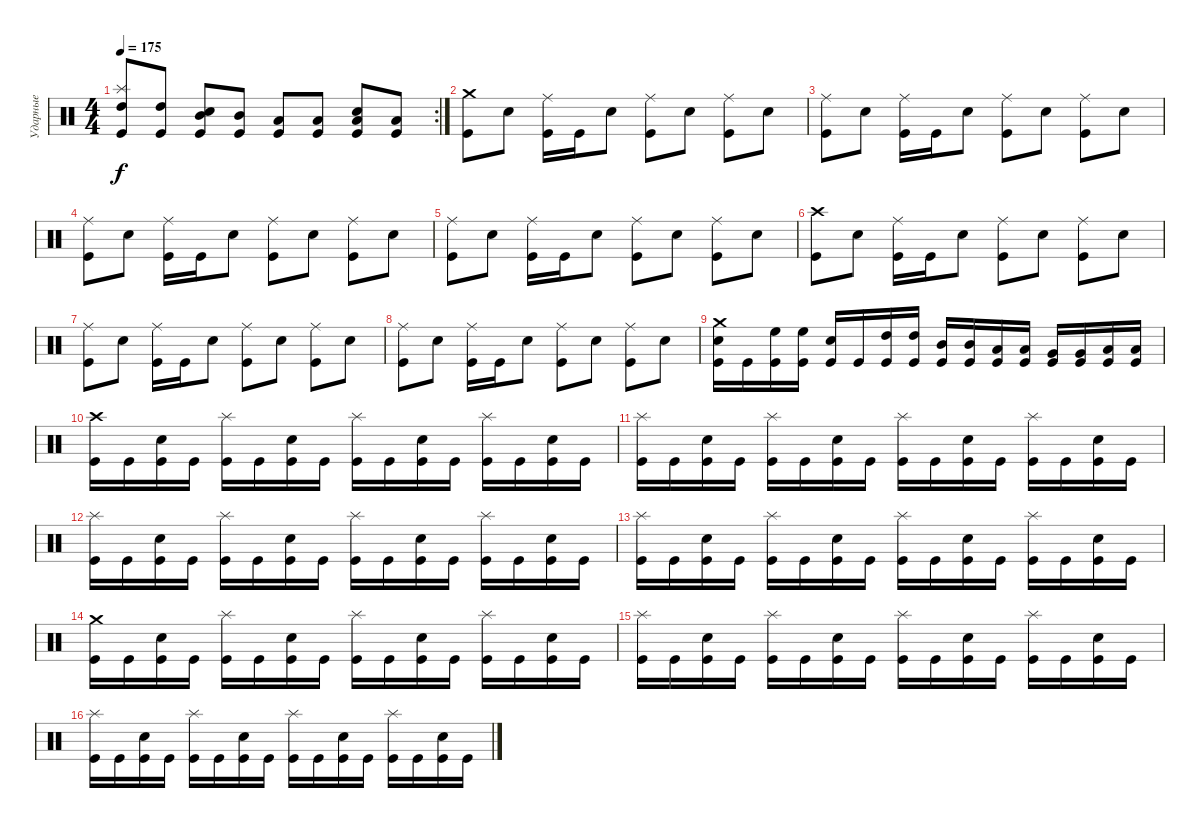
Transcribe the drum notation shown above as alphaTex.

\track ("Ударные" "Ударные") {instrument percussion}
\staff {score}
\articulation defaults
\rc 2
\ts (4 4)
\tempo 175
\clef neutral
\ks c
("High Tom (hit)" "Splash (hit)" "Kick (hit)").8{dy f} ("High Tom (hit)" "Kick (hit)").8 ("Snare (hit) 2" "Mid Tom (hit)" "Kick (hit)").8 ("Mid Tom (hit)" "Kick (hit)").8 ("Low Tom (hit)" "Kick (hit)").8 ("Low Tom (hit)" "Kick (hit)").8 ("Snare (hit) 2" "Low Tom (hit)" "Kick (hit)").8 ("Low Tom (hit)" "Kick (hit)").8 |
("Crash medium (hit)" "Kick (hit)").8 "Snare (hit) 2".8 ("Ride (middle)" "Kick (hit)").16 "Kick (hit)".16 "Snare (hit) 2".8 ("Ride (middle)" "Kick (hit)").8 "Snare (hit) 2".8 ("Ride (middle)" "Kick (hit)").8 "Snare (hit) 2".8 |
("Ride (middle)" "Kick (hit)").8 "Snare (hit) 2".8 ("Ride (middle)" "Kick (hit)").16 "Kick (hit)".16 "Snare (hit) 2".8 ("Ride (middle)" "Kick (hit)").8 "Snare (hit) 2".8 ("Ride (middle)" "Kick (hit)").8 "Snare (hit) 2".8 |
("Ride (middle)" "Kick (hit)").8 "Snare (hit) 2".8 ("Ride (middle)" "Kick (hit)").16 "Kick (hit)".16 "Snare (hit) 2".8 ("Ride (middle)" "Kick (hit)").8 "Snare (hit) 2".8 ("Ride (middle)" "Kick (hit)").8 "Snare (hit) 2".8 |
("Ride (middle)" "Kick (hit)").8 "Snare (hit) 2".8 ("Ride (middle)" "Kick (hit)").16 "Kick (hit)".16 "Snare (hit) 2".8 ("Ride (middle)" "Kick (hit)").8 "Snare (hit) 2".8 ("Ride (middle)" "Kick (hit)").8 "Snare (hit) 2".8 |
("Crash high (hit)" "Kick (hit)").8 "Snare (hit) 2".8 ("Ride (middle)" "Kick (hit)").16 "Kick (hit)".16 "Snare (hit) 2".8 ("Ride (middle)" "Kick (hit)").8 "Snare (hit) 2".8 ("Ride (middle)" "Kick (hit)").8 "Snare (hit) 2".8 |
("Ride (middle)" "Kick (hit)").8 "Snare (hit) 2".8 ("Ride (middle)" "Kick (hit)").16 "Kick (hit)".16 "Snare (hit) 2".8 ("Ride (middle)" "Kick (hit)").8 "Snare (hit) 2".8 ("Ride (middle)" "Kick (hit)").8 "Snare (hit) 2".8 |
("Ride (middle)" "Kick (hit)").8 "Snare (hit) 2".8 ("Ride (middle)" "Kick (hit)").16 "Kick (hit)".16 "Snare (hit) 2".8 ("Ride (middle)" "Kick (hit)").8 "Snare (hit) 2".8 ("Ride (middle)" "Kick (hit)").8 "Snare (hit) 2".8 |
("Crash medium (hit)" "Snare (hit) 2" "Kick (hit)").16 "Kick (hit)".16 ("High Floor Tom (hit)" "Kick (hit)").16 ("High Floor Tom (hit)" "Kick (hit)").16 ("Snare (hit) 2" "Kick (hit)").16 "Kick (hit)".16 ("High Tom (hit)" "Kick (hit)").16 ("High Tom (hit)" "Kick (hit)").16 ("Mid Tom (hit)" "Kick (hit)").16 ("Mid Tom (hit)" "Kick (hit)").16 ("Low Tom (hit)" "Kick (hit)").16 ("Low Tom (hit)" "Kick (hit)").16 ("Very Low Tom (hit)" "Kick (hit)").16 ("Very Low Tom (hit)" "Kick (hit)").16 ("Low Floor Tom (hit)" "Kick (hit)").16 ("Low Floor Tom (hit)" "Kick (hit)").16 |
("Crash high (hit)" "Kick (hit)").16 "Kick (hit)".16 ("Snare (hit) 2" "Kick (hit)").16 "Kick (hit)".16 ("Splash (hit)" "Kick (hit)").16 "Kick (hit)".16 ("Snare (hit) 2" "Kick (hit)").16 "Kick (hit)".16 ("Splash (hit)" "Kick (hit)").16 "Kick (hit)".16 ("Snare (hit) 2" "Kick (hit)").16 "Kick (hit)".16 ("Splash (hit)" "Kick (hit)").16 "Kick (hit)".16 ("Snare (hit) 2" "Kick (hit)").16 "Kick (hit)".16 |
("Splash (hit)" "Kick (hit)").16 "Kick (hit)".16 ("Snare (hit) 2" "Kick (hit)").16 "Kick (hit)".16 ("Splash (hit)" "Kick (hit)").16 "Kick (hit)".16 ("Snare (hit) 2" "Kick (hit)").16 "Kick (hit)".16 ("Splash (hit)" "Kick (hit)").16 "Kick (hit)".16 ("Snare (hit) 2" "Kick (hit)").16 "Kick (hit)".16 ("Splash (hit)" "Kick (hit)").16 "Kick (hit)".16 ("Snare (hit) 2" "Kick (hit)").16 "Kick (hit)".16 |
("Splash (hit)" "Kick (hit)").16 "Kick (hit)".16 ("Snare (hit) 2" "Kick (hit)").16 "Kick (hit)".16 ("Splash (hit)" "Kick (hit)").16 "Kick (hit)".16 ("Snare (hit) 2" "Kick (hit)").16 "Kick (hit)".16 ("Splash (hit)" "Kick (hit)").16 "Kick (hit)".16 ("Snare (hit) 2" "Kick (hit)").16 "Kick (hit)".16 ("Splash (hit)" "Kick (hit)").16 "Kick (hit)".16 ("Snare (hit) 2" "Kick (hit)").16 "Kick (hit)".16 |
("Splash (hit)" "Kick (hit)").16 "Kick (hit)".16 ("Snare (hit) 2" "Kick (hit)").16 "Kick (hit)".16 ("Splash (hit)" "Kick (hit)").16 "Kick (hit)".16 ("Snare (hit) 2" "Kick (hit)").16 "Kick (hit)".16 ("Splash (hit)" "Kick (hit)").16 "Kick (hit)".16 ("Snare (hit) 2" "Kick (hit)").16 "Kick (hit)".16 ("Splash (hit)" "Kick (hit)").16 "Kick (hit)".16 ("Snare (hit) 2" "Kick (hit)").16 "Kick (hit)".16 |
("Crash medium (hit)" "Kick (hit)").16 "Kick (hit)".16 ("Snare (hit) 2" "Kick (hit)").16 "Kick (hit)".16 ("Splash (hit)" "Kick (hit)").16 "Kick (hit)".16 ("Snare (hit) 2" "Kick (hit)").16 "Kick (hit)".16 ("Splash (hit)" "Kick (hit)").16 "Kick (hit)".16 ("Snare (hit) 2" "Kick (hit)").16 "Kick (hit)".16 ("Splash (hit)" "Kick (hit)").16 "Kick (hit)".16 ("Snare (hit) 2" "Kick (hit)").16 "Kick (hit)".16 |
("Splash (hit)" "Kick (hit)").16 "Kick (hit)".16 ("Snare (hit) 2" "Kick (hit)").16 "Kick (hit)".16 ("Splash (hit)" "Kick (hit)").16 "Kick (hit)".16 ("Snare (hit) 2" "Kick (hit)").16 "Kick (hit)".16 ("Splash (hit)" "Kick (hit)").16 "Kick (hit)".16 ("Snare (hit) 2" "Kick (hit)").16 "Kick (hit)".16 ("Splash (hit)" "Kick (hit)").16 "Kick (hit)".16 ("Snare (hit) 2" "Kick (hit)").16 "Kick (hit)".16 |
("Splash (hit)" "Kick (hit)").16 "Kick (hit)".16 ("Snare (hit) 2" "Kick (hit)").16 "Kick (hit)".16 ("Splash (hit)" "Kick (hit)").16 "Kick (hit)".16 ("Snare (hit) 2" "Kick (hit)").16 "Kick (hit)".16 ("Splash (hit)" "Kick (hit)").16 "Kick (hit)".16 ("Snare (hit) 2" "Kick (hit)").16 "Kick (hit)".16 ("Splash (hit)" "Kick (hit)").16 "Kick (hit)".16 ("Snare (hit) 2" "Kick (hit)").16 "Kick (hit)".16
